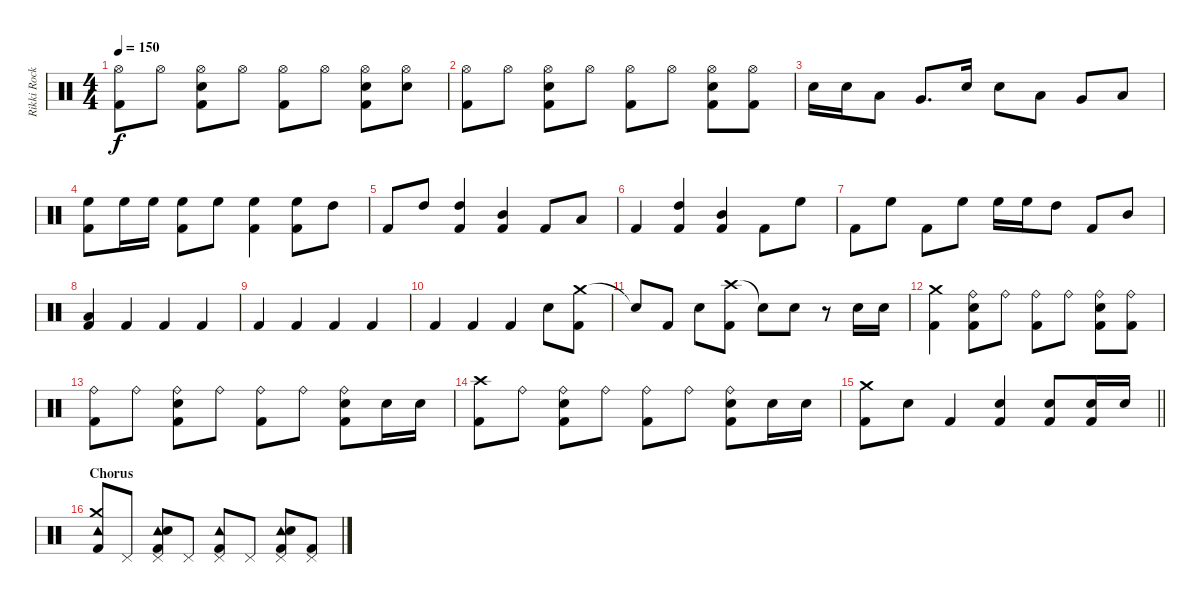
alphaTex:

\track ("Rikki Rockett - Drums" "Rikki Rock") {instrument percussion}
\staff {score}
\articulation defaults
\ts (4 4)
\tempo 150
\clef neutral
\ks c
("Hi-Hat (open)" "Kick (hit) 2").8{dy f} "Hi-Hat (open)".8 ("Hi-Hat (open)" "Electric Snare (hit)" "Kick (hit) 2").8 "Hi-Hat (open)".8 ("Hi-Hat (open)" "Kick (hit) 2").8 "Hi-Hat (open)".8 ("Hi-Hat (open)" "Electric Snare (hit)" "Kick (hit) 2").8 ("Hi-Hat (open)" "Electric Snare (hit)").8 |
("Hi-Hat (open)" "Kick (hit) 2").8 "Hi-Hat (open)".8 ("Hi-Hat (open)" "Electric Snare (hit)" "Kick (hit) 2").8 "Hi-Hat (open)".8 ("Hi-Hat (open)" "Kick (hit) 2").8 "Hi-Hat (open)".8 ("Hi-Hat (open)" "Electric Snare (hit)" "Kick (hit) 2").8 ("Hi-Hat (open)" "Kick (hit) 2").8 |
"Electric Snare (hit)".16 "Electric Snare (hit)".16 "Low Tom (hit)".8 "Very Low Tom (hit)".8{d} "Electric Snare (hit)".16 "Electric Snare (hit)".8 "Low Tom (hit)".8 "Very Low Tom (hit)".8 "Low Floor Tom (hit)".8 |
("High Floor Tom (hit)" "Kick (hit) 2").8 "High Floor Tom (hit)".16 "High Floor Tom (hit)".16 ("High Floor Tom (hit)" "Kick (hit) 2").8 "High Floor Tom (hit)".8 ("High Floor Tom (hit)" "Kick (hit) 2").4 ("High Floor Tom (hit)" "Kick (hit) 2").8 "High Tom (hit)".8 |
"Kick (hit) 2".8 "High Tom (hit)".8 ("High Tom (hit)" "Kick (hit) 2").4 ("Mid Tom (hit)" "Kick (hit) 2").4 "Kick (hit) 2".8 "Low Tom (hit)".8 |
"Kick (hit) 2".4 ("High Tom (hit)" "Kick (hit) 2").4 ("Mid Tom (hit)" "Kick (hit) 2").4 "Kick (hit) 2".8 "High Floor Tom (hit)".8 |
"Kick (hit) 2".8 "High Floor Tom (hit)".8 "Kick (hit) 2".8 "High Floor Tom (hit)".8 "High Floor Tom (hit)".16 "High Floor Tom (hit)".16 "High Tom (hit)".8 "Kick (hit) 2".8 "Mid Tom (hit)".8 |
("Low Tom (hit)" "Kick (hit) 2").4 "Kick (hit) 2".4 "Kick (hit) 2".4 "Kick (hit) 2".4 |
"Kick (hit) 2".4 "Kick (hit) 2".4 "Kick (hit) 2".4 "Kick (hit) 2".4 |
"Kick (hit) 2".4 "Kick (hit) 2".4 "Kick (hit) 2".4 "Electric Snare (hit)".8 ("Crash medium (hit)" "Kick (hit) 2").8 |
"Snare (hit)"{t}.8 "Kick (hit) 2".8 "Electric Snare (hit)".8 ("Crash high (hit)" "Kick (hit) 2").8 "Snare (hit)"{t}.8 "Electric Snare (hit)".8 r.8 "Electric Snare (hit)".16 "Electric Snare (hit)".16 |
("Crash medium (hit)" "Kick (hit) 2").4 ("Ride (bell)" "Electric Snare (hit)" "Kick (hit) 2").8 "Ride (bell)".8 ("Ride (bell)" "Kick (hit) 2").8 "Ride (bell)".8 ("Ride (bell)" "Electric Snare (hit)" "Kick (hit) 2").8 ("Ride (bell)" "Kick (hit) 2").8 |
("Ride (bell)" "Kick (hit) 2").8 "Ride (bell)".8 ("Ride (bell)" "Electric Snare (hit)" "Kick (hit) 2").8 "Ride (bell)".8 ("Ride (bell)" "Kick (hit) 2").8 "Ride (bell)".8 ("Ride (bell)" "Electric Snare (hit)" "Kick (hit) 2").8 "Electric Snare (hit)".16 "Electric Snare (hit)".16 |
("Crash high (hit)" "Kick (hit) 2").8 "Ride (bell)".8 ("Ride (bell)" "Electric Snare (hit)" "Kick (hit) 2").8 "Ride (bell)".8 ("Ride (bell)" "Kick (hit) 2").8 "Ride (bell)".8 ("Ride (bell)" "Electric Snare (hit)" "Kick (hit) 2").8 "Electric Snare (hit)".16 "Electric Snare (hit)".16 |
\barLineRight lightlight
("Crash medium (hit)" "Kick (hit) 2").8 "Electric Snare (hit)".8 "Kick (hit) 2".4 ("Electric Snare (hit)" "Kick (hit) 2").4 ("Electric Snare (hit)" "Kick (hit) 2").8 ("Electric Snare (hit)" "Kick (hit) 2").16 "Electric Snare (hit)".16 |
\section ("" "Chorus")
("Tambourine (hit)" "Crash medium (hit)" "Kick (hit) 2").8 "Pedal Hi-Hat (hit)".8 ("Tambourine (hit)" "Pedal Hi-Hat (hit)" "Electric Snare (hit)" "Kick (hit) 2").8 "Pedal Hi-Hat (hit)".8 ("Tambourine (hit)" "Pedal Hi-Hat (hit)" "Kick (hit) 2").8 "Pedal Hi-Hat (hit)".8 ("Tambourine (hit)" "Pedal Hi-Hat (hit)" "Electric Snare (hit)" "Kick (hit) 2").8 ("Pedal Hi-Hat (hit)" "Kick (hit) 2").8
